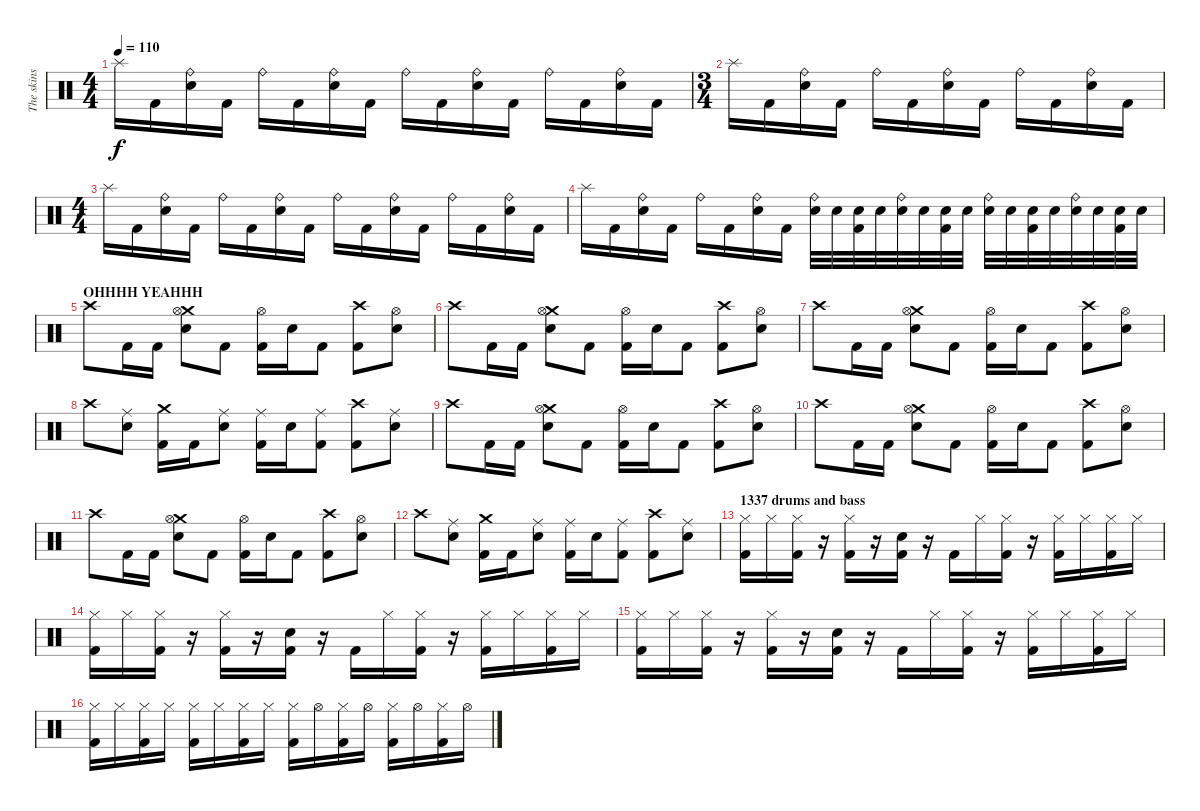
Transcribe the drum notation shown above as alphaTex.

\track ("The skins" "The skins") {instrument percussion}
\staff {score}
\articulation defaults
\ts (4 4)
\tempo 110
\clef neutral
\ks c "Splash (hit)".16{dy f} "Kick (hit) 2".16
("Ride (bell)" "Electric Snare (hit)").16 "Kick (hit) 2".16 "Ride (bell)".16 "Kick (hit) 2".16 ("Ride (bell)" "Electric Snare (hit)").16 "Kick (hit) 2".16 "Ride (bell)".16 "Kick (hit) 2".16 ("Ride (bell)" "Electric Snare (hit)").16 "Kick (hit) 2".16 "Ride (bell)".16 "Kick (hit) 2".16 ("Ride (bell)" "Electric Snare (hit)").16 "Kick (hit) 2".16 |
\ts (3 4)
"Splash (hit)".16 "Kick (hit) 2".16 ("Ride (bell)" "Electric Snare (hit)").16 "Kick (hit) 2".16 "Ride (bell)".16 "Kick (hit) 2".16 ("Ride (bell)" "Electric Snare (hit)").16 "Kick (hit) 2".16 "Ride (bell)".16 "Kick (hit) 2".16 ("Ride (bell)" "Electric Snare (hit)").16 "Kick (hit) 2".16 |
\ts (4 4)
"Splash (hit)".16 "Kick (hit) 2".16 ("Ride (bell)" "Electric Snare (hit)").16 "Kick (hit) 2".16 "Ride (bell)".16 "Kick (hit) 2".16 ("Ride (bell)" "Electric Snare (hit)").16 "Kick (hit) 2".16 "Ride (bell)".16 "Kick (hit) 2".16 ("Ride (bell)" "Electric Snare (hit)").16 "Kick (hit) 2".16 "Ride (bell)".16 "Kick (hit) 2".16 ("Ride (bell)" "Electric Snare (hit)").16 "Kick (hit) 2".16 |
"Splash (hit)".16 "Kick (hit) 2".16 ("Ride (bell)" "Electric Snare (hit)").16 "Kick (hit) 2".16 "Ride (bell)".16 "Kick (hit) 2".16 ("Ride (bell)" "Electric Snare (hit)").16 "Kick (hit) 2".16 ("Ride (bell)" "Electric Snare (hit)").32 "Electric Snare (hit)".32 ("Electric Snare (hit)" "Kick (hit) 2").32 "Electric Snare (hit)".32 ("Ride (bell)" "Electric Snare (hit)").32 "Electric Snare (hit)".32 ("Electric Snare (hit)" "Kick (hit) 2").32 "Electric Snare (hit)".32 ("Ride (bell)" "Electric Snare (hit)").32 "Electric Snare (hit)".32 ("Electric Snare (hit)" "Kick (hit) 2").32 "Electric Snare (hit)".32 ("Ride (bell)" "Electric Snare (hit)").32 "Electric Snare (hit)".32 ("Electric Snare (hit)" "Kick (hit) 2").32 "Electric Snare (hit)".32 |
\section ("" "OHHHH YEAHHH")
"Crash high (hit)".8 "Kick (hit) 2".16 "Kick (hit) 2".16 ("Crash medium (hit)" "Hi-Hat (open)" "Electric Snare (hit)").8 "Kick (hit) 2".8 ("Hi-Hat (open)" "Kick (hit) 2").16 "Electric Snare (hit)".16 "Kick (hit) 2".8 ("Crash high (hit)" "Kick (hit) 2").8 ("Hi-Hat (open)" "Electric Snare (hit)").8 |
"Crash high (hit)".8 "Kick (hit) 2".16 "Kick (hit) 2".16 ("Crash medium (hit)" "Hi-Hat (open)" "Electric Snare (hit)").8 "Kick (hit) 2".8 ("Hi-Hat (open)" "Kick (hit) 2").16 "Electric Snare (hit)".16 "Kick (hit) 2".8 ("Crash high (hit)" "Kick (hit) 2").8 ("Hi-Hat (open)" "Electric Snare (hit)").8 |
"Crash high (hit)".8 "Kick (hit) 2".16 "Kick (hit) 2".16 ("Crash medium (hit)" "Hi-Hat (open)" "Electric Snare (hit)").8 "Kick (hit) 2".8 ("Hi-Hat (open)" "Kick (hit) 2").16 "Electric Snare (hit)".16 "Kick (hit) 2".8 ("Crash high (hit)" "Kick (hit) 2").8 ("Hi-Hat (open)" "Electric Snare (hit)").8 |
"Crash high (hit)".8 ("Ride (middle)" "Electric Snare (hit)").8 ("Crash medium (hit)" "Kick (hit) 2").16 "Kick (hit) 2".16 ("Ride (middle)" "Electric Snare (hit)").8 ("Ride (middle)" "Kick (hit) 2").16 "Electric Snare (hit)".16 ("Ride (middle)" "Kick (hit) 2").8 ("Crash high (hit)" "Kick (hit) 2").8 ("Ride (middle)" "Electric Snare (hit)").8 |
"Crash high (hit)".8 "Kick (hit) 2".16 "Kick (hit) 2".16 ("Crash medium (hit)" "Hi-Hat (open)" "Electric Snare (hit)").8 "Kick (hit) 2".8 ("Hi-Hat (open)" "Kick (hit) 2").16 "Electric Snare (hit)".16 "Kick (hit) 2".8 ("Crash high (hit)" "Kick (hit) 2").8 ("Hi-Hat (open)" "Electric Snare (hit)").8 |
"Crash high (hit)".8 "Kick (hit) 2".16 "Kick (hit) 2".16 ("Crash medium (hit)" "Hi-Hat (open)" "Electric Snare (hit)").8 "Kick (hit) 2".8 ("Hi-Hat (open)" "Kick (hit) 2").16 "Electric Snare (hit)".16 "Kick (hit) 2".8 ("Crash high (hit)" "Kick (hit) 2").8 ("Hi-Hat (open)" "Electric Snare (hit)").8 |
"Crash high (hit)".8 "Kick (hit) 2".16 "Kick (hit) 2".16 ("Crash medium (hit)" "Hi-Hat (open)" "Electric Snare (hit)").8 "Kick (hit) 2".8 ("Hi-Hat (open)" "Kick (hit) 2").16 "Electric Snare (hit)".16 "Kick (hit) 2".8 ("Crash high (hit)" "Kick (hit) 2").8 ("Hi-Hat (open)" "Electric Snare (hit)").8 |
"Crash high (hit)".8 ("Ride (middle)" "Electric Snare (hit)").8 ("Crash medium (hit)" "Kick (hit) 2").16 "Kick (hit) 2".16 ("Ride (middle)" "Electric Snare (hit)").8 ("Ride (middle)" "Kick (hit) 2").16 "Electric Snare (hit)".16 ("Ride (middle)" "Kick (hit) 2").8 ("Crash high (hit)" "Kick (hit) 2").8 ("Ride (middle)" "Electric Snare (hit)").8 |
\section ("" "1337 drums and bass")
("Hi-Hat (closed)" "Kick (hit) 2").16 "Hi-Hat (closed)".16 ("Hi-Hat (closed)" "Kick (hit) 2").16 r.16 ("Hi-Hat (closed)" "Kick (hit) 2").16 r.16 ("Electric Snare (hit)" "Kick (hit) 2").16 r.16 "Kick (hit) 2".16 "Hi-Hat (closed)".16 ("Hi-Hat (closed)" "Kick (hit) 2").16 r.16 ("Hi-Hat (closed)" "Kick (hit) 2").16 "Hi-Hat (closed)".16 ("Hi-Hat (closed)" "Kick (hit) 2").16 "Hi-Hat (closed)".16 |
("Hi-Hat (closed)" "Kick (hit) 2").16 "Hi-Hat (closed)".16 ("Hi-Hat (closed)" "Kick (hit) 2").16 r.16 ("Hi-Hat (closed)" "Kick (hit) 2").16 r.16 ("Electric Snare (hit)" "Kick (hit) 2").16 r.16 "Kick (hit) 2".16 "Hi-Hat (closed)".16 ("Hi-Hat (closed)" "Kick (hit) 2").16 r.16 ("Hi-Hat (closed)" "Kick (hit) 2").16 "Hi-Hat (closed)".16 ("Hi-Hat (closed)" "Kick (hit) 2").16 "Hi-Hat (closed)".16 |
("Hi-Hat (closed)" "Kick (hit) 2").16 "Hi-Hat (closed)".16 ("Hi-Hat (closed)" "Kick (hit) 2").16 r.16 ("Hi-Hat (closed)" "Kick (hit) 2").16 r.16 ("Electric Snare (hit)" "Kick (hit) 2").16 r.16 "Kick (hit) 2".16 "Hi-Hat (closed)".16 ("Hi-Hat (closed)" "Kick (hit) 2").16 r.16 ("Hi-Hat (closed)" "Kick (hit) 2").16 "Hi-Hat (closed)".16 ("Hi-Hat (closed)" "Kick (hit) 2").16 "Hi-Hat (closed)".16 |
("Hi-Hat (closed)" "Kick (hit) 2").16 "Hi-Hat (closed)".16 ("Hi-Hat (closed)" "Kick (hit) 2").16 "Hi-Hat (closed)".16 ("Hi-Hat (closed)" "Kick (hit) 2").16 "Hi-Hat (closed)".16 ("Hi-Hat (closed)" "Kick (hit) 2").16 "Hi-Hat (closed)".16 ("Hi-Hat (closed)" "Kick (hit) 2").16 "Hi-Hat (open)".16 ("Hi-Hat (closed)" "Kick (hit) 2").16 "Hi-Hat (open)".16 ("Hi-Hat (closed)" "Kick (hit) 2").16 "Hi-Hat (open)".16 ("Hi-Hat (closed)" "Kick (hit) 2").16 "Hi-Hat (open)".16
